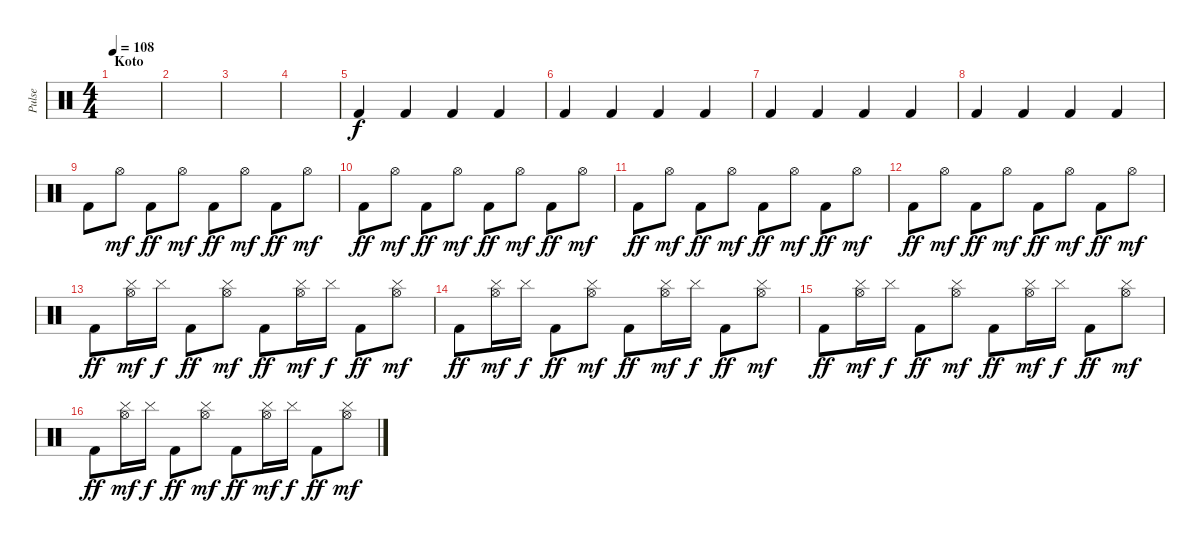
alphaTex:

\track ("Pulse" "Pulse") {instrument percussion}
\staff {score}
\articulation defaults
\ts (4 4)
\section ("" "Koto")
\tempo 108
\clef neutral
\ks c
|
|
|
|
"Kick (hit) 2".4 "Kick (hit) 2".4 "Kick (hit) 2".4 "Kick (hit) 2".4 |
"Kick (hit) 2".4 "Kick (hit) 2".4 "Kick (hit) 2".4 "Kick (hit) 2".4 |
"Kick (hit) 2".4 "Kick (hit) 2".4 "Kick (hit) 2".4 "Kick (hit) 2".4 |
"Kick (hit) 2".4 "Kick (hit) 2".4 "Kick (hit) 2".4 "Kick (hit) 2".4 |
"Kick (hit) 2".8 "Hi-Hat (open)".8{dy mf} "Kick (hit) 2".8{dy ff} "Hi-Hat (open)".8{dy mf} "Kick (hit) 2".8{dy ff} "Hi-Hat (open)".8{dy mf} "Kick (hit) 2".8{dy ff} "Hi-Hat (open)".8{dy mf} |
"Kick (hit) 2".8{dy ff} "Hi-Hat (open)".8{dy mf} "Kick (hit) 2".8{dy ff} "Hi-Hat (open)".8{dy mf} "Kick (hit) 2".8{dy ff} "Hi-Hat (open)".8{dy mf} "Kick (hit) 2".8{dy ff} "Hi-Hat (open)".8{dy mf} |
"Kick (hit) 2".8{dy ff} "Hi-Hat (open)".8{dy mf} "Kick (hit) 2".8{dy ff} "Hi-Hat (open)".8{dy mf} "Kick (hit) 2".8{dy ff} "Hi-Hat (open)".8{dy mf} "Kick (hit) 2".8{dy ff} "Hi-Hat (open)".8{dy mf} |
"Kick (hit) 2".8{dy ff} "Hi-Hat (open)".8{dy mf} "Kick (hit) 2".8{dy ff} "Hi-Hat (open)".8{dy mf} "Kick (hit) 2".8{dy ff} "Hi-Hat (open)".8{dy mf} "Kick (hit) 2".8{dy ff} "Hi-Hat (open)".8{dy mf} |
"Kick (hit) 2".8{dy ff} ("Cymbal (hit)" "Hi-Hat (open)").16{dy mf} "Cymbal (hit)".16{dy f} "Kick (hit) 2".8{dy ff} ("Cymbal (hit)" "Hi-Hat (open)").8{dy mf} "Kick (hit) 2".8{dy ff} ("Cymbal (hit)" "Hi-Hat (open)").16{dy mf} "Cymbal (hit)".16{dy f} "Kick (hit) 2".8{dy ff} ("Cymbal (hit)" "Hi-Hat (open)").8{dy mf} |
"Kick (hit) 2".8{dy ff} ("Cymbal (hit)" "Hi-Hat (open)").16{dy mf} "Cymbal (hit)".16{dy f} "Kick (hit) 2".8{dy ff} ("Cymbal (hit)" "Hi-Hat (open)").8{dy mf} "Kick (hit) 2".8{dy ff} ("Cymbal (hit)" "Hi-Hat (open)").16{dy mf} "Cymbal (hit)".16{dy f} "Kick (hit) 2".8{dy ff} ("Cymbal (hit)" "Hi-Hat (open)").8{dy mf} |
"Kick (hit) 2".8{dy ff} ("Cymbal (hit)" "Hi-Hat (open)").16{dy mf} "Cymbal (hit)".16{dy f} "Kick (hit) 2".8{dy ff} ("Cymbal (hit)" "Hi-Hat (open)").8{dy mf} "Kick (hit) 2".8{dy ff} ("Cymbal (hit)" "Hi-Hat (open)").16{dy mf} "Cymbal (hit)".16{dy f} "Kick (hit) 2".8{dy ff} ("Cymbal (hit)" "Hi-Hat (open)").8{dy mf} |
"Kick (hit) 2".8{dy ff} ("Cymbal (hit)" "Hi-Hat (open)").16{dy mf} "Cymbal (hit)".16{dy f} "Kick (hit) 2".8{dy ff} ("Cymbal (hit)" "Hi-Hat (open)").8{dy mf} "Kick (hit) 2".8{dy ff} ("Cymbal (hit)" "Hi-Hat (open)").16{dy mf} "Cymbal (hit)".16{dy f} "Kick (hit) 2".8{dy ff} ("Cymbal (hit)" "Hi-Hat (open)").8{dy mf}
